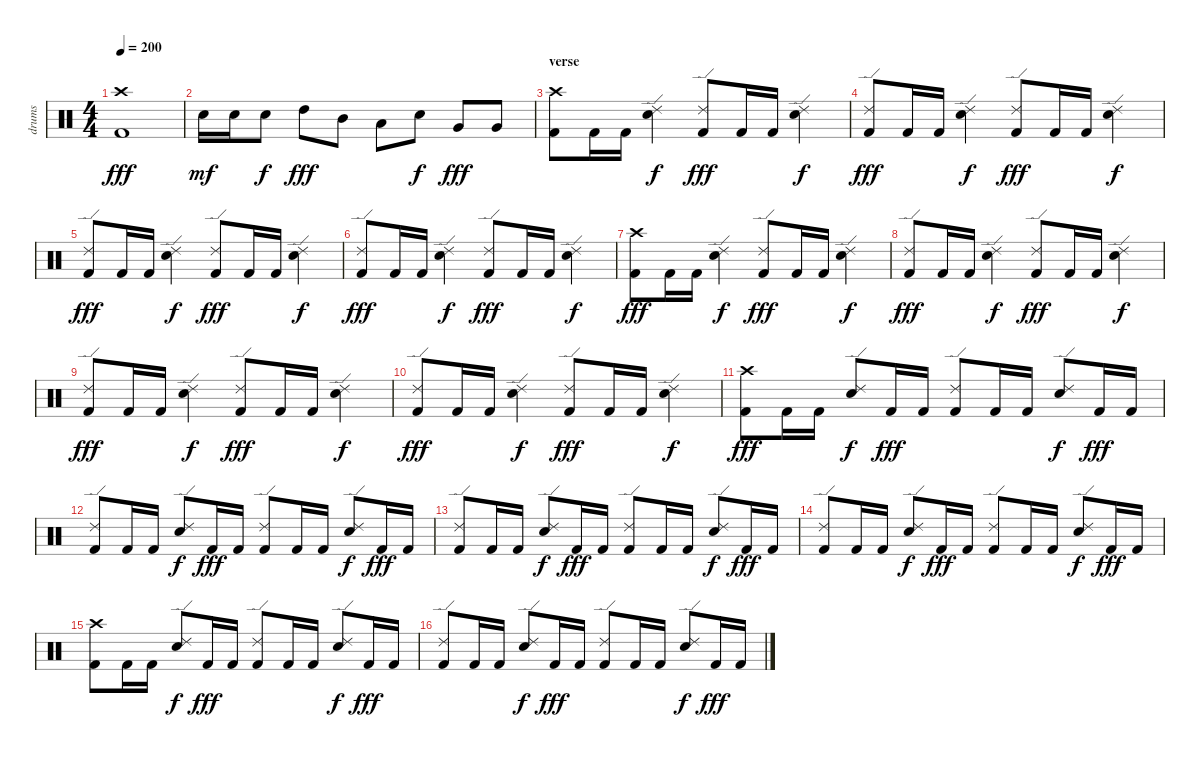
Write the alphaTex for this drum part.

\track ("drums" "drums") {instrument percussion}
\staff {score}
\articulation defaults
\ts (4 4)
\tempo 200
\clef neutral
\ks c
("Crash high (hit)" "Kick (hit) 2").1{dy fff} |
"Snare (hit) 2".16{dy mf} "Snare (hit) 2".16 "Snare (hit) 2".8{dy f} "High Tom (hit)".8{dy fff} "Mid Tom (hit)".8 "Low Tom (hit)".8 "Snare (hit) 2".8{dy f} "Very Low Tom (hit)".8{dy fff} "Very Low Tom (hit)".8 |
\section ("" "verse")
("Crash high (hit)" "Kick (hit) 2").8 "Kick (hit) 2".16 "Kick (hit) 2".16 ("Ride (edge) 2" "Snare (hit) 2").4{dy f} ("Ride (edge) 2" "Kick (hit) 2").8{dy fff} "Kick (hit) 2".16 "Kick (hit) 2".16 ("Ride (edge) 2" "Snare (hit) 2").4{dy f} |
("Ride (edge) 2" "Kick (hit) 2").8{dy fff} "Kick (hit) 2".16 "Kick (hit) 2".16 ("Ride (edge) 2" "Snare (hit) 2").4{dy f} ("Ride (edge) 2" "Kick (hit) 2").8{dy fff} "Kick (hit) 2".16 "Kick (hit) 2".16 ("Ride (edge) 2" "Snare (hit) 2").4{dy f} |
("Ride (edge) 2" "Kick (hit) 2").8{dy fff} "Kick (hit) 2".16 "Kick (hit) 2".16 ("Ride (edge) 2" "Snare (hit) 2").4{dy f} ("Ride (edge) 2" "Kick (hit) 2").8{dy fff} "Kick (hit) 2".16 "Kick (hit) 2".16 ("Ride (edge) 2" "Snare (hit) 2").4{dy f} |
("Ride (edge) 2" "Kick (hit) 2").8{dy fff} "Kick (hit) 2".16 "Kick (hit) 2".16 ("Ride (edge) 2" "Snare (hit) 2").4{dy f} ("Ride (edge) 2" "Kick (hit) 2").8{dy fff} "Kick (hit) 2".16 "Kick (hit) 2".16 ("Ride (edge) 2" "Snare (hit) 2").4{dy f} |
("Crash high (hit)" "Kick (hit) 2").8{dy fff} "Kick (hit) 2".16 "Kick (hit) 2".16 ("Ride (edge) 2" "Snare (hit) 2").4{dy f} ("Ride (edge) 2" "Kick (hit) 2").8{dy fff} "Kick (hit) 2".16 "Kick (hit) 2".16 ("Ride (edge) 2" "Snare (hit) 2").4{dy f} |
("Ride (edge) 2" "Kick (hit) 2").8{dy fff} "Kick (hit) 2".16 "Kick (hit) 2".16 ("Ride (edge) 2" "Snare (hit) 2").4{dy f} ("Ride (edge) 2" "Kick (hit) 2").8{dy fff} "Kick (hit) 2".16 "Kick (hit) 2".16 ("Ride (edge) 2" "Snare (hit) 2").4{dy f} |
("Ride (edge) 2" "Kick (hit) 2").8{dy fff} "Kick (hit) 2".16 "Kick (hit) 2".16 ("Ride (edge) 2" "Snare (hit) 2").4{dy f} ("Ride (edge) 2" "Kick (hit) 2").8{dy fff} "Kick (hit) 2".16 "Kick (hit) 2".16 ("Ride (edge) 2" "Snare (hit) 2").4{dy f} |
("Ride (edge) 2" "Kick (hit) 2").8{dy fff} "Kick (hit) 2".16 "Kick (hit) 2".16 ("Ride (edge) 2" "Snare (hit) 2").4{dy f} ("Ride (edge) 2" "Kick (hit) 2").8{dy fff} "Kick (hit) 2".16 "Kick (hit) 2".16 ("Ride (edge) 2" "Snare (hit) 2").4{dy f} |
("Crash high (hit)" "Kick (hit) 2").8{dy fff} "Kick (hit) 2".16 "Kick (hit) 2".16 ("Ride (edge) 2" "Snare (hit) 2").8{dy f} "Kick (hit) 2".16{dy fff} "Kick (hit) 2".16 ("Ride (edge) 2" "Kick (hit) 2").8 "Kick (hit) 2".16 "Kick (hit) 2".16 ("Ride (edge) 2" "Snare (hit) 2").8{dy f} "Kick (hit) 2".16{dy fff} "Kick (hit) 2".16 |
("Ride (edge) 2" "Kick (hit) 2").8 "Kick (hit) 2".16 "Kick (hit) 2".16 ("Ride (edge) 2" "Snare (hit) 2").8{dy f} "Kick (hit) 2".16{dy fff} "Kick (hit) 2".16 ("Ride (edge) 2" "Kick (hit) 2").8 "Kick (hit) 2".16 "Kick (hit) 2".16 ("Ride (edge) 2" "Snare (hit) 2").8{dy f} "Kick (hit) 2".16{dy fff} "Kick (hit) 2".16 |
("Ride (edge) 2" "Kick (hit) 2").8 "Kick (hit) 2".16 "Kick (hit) 2".16 ("Ride (edge) 2" "Snare (hit) 2").8{dy f} "Kick (hit) 2".16{dy fff} "Kick (hit) 2".16 ("Ride (edge) 2" "Kick (hit) 2").8 "Kick (hit) 2".16 "Kick (hit) 2".16 ("Ride (edge) 2" "Snare (hit) 2").8{dy f} "Kick (hit) 2".16{dy fff} "Kick (hit) 2".16 |
("Ride (edge) 2" "Kick (hit) 2").8 "Kick (hit) 2".16 "Kick (hit) 2".16 ("Ride (edge) 2" "Snare (hit) 2").8{dy f} "Kick (hit) 2".16{dy fff} "Kick (hit) 2".16 ("Ride (edge) 2" "Kick (hit) 2").8 "Kick (hit) 2".16 "Kick (hit) 2".16 ("Ride (edge) 2" "Snare (hit) 2").8{dy f} "Kick (hit) 2".16{dy fff} "Kick (hit) 2".16 |
("Crash high (hit)" "Kick (hit) 2").8 "Kick (hit) 2".16 "Kick (hit) 2".16 ("Ride (edge) 2" "Snare (hit) 2").8{dy f} "Kick (hit) 2".16{dy fff} "Kick (hit) 2".16 ("Ride (edge) 2" "Kick (hit) 2").8 "Kick (hit) 2".16 "Kick (hit) 2".16 ("Ride (edge) 2" "Snare (hit) 2").8{dy f} "Kick (hit) 2".16{dy fff} "Kick (hit) 2".16 |
("Ride (edge) 2" "Kick (hit) 2").8 "Kick (hit) 2".16 "Kick (hit) 2".16 ("Ride (edge) 2" "Snare (hit) 2").8{dy f} "Kick (hit) 2".16{dy fff} "Kick (hit) 2".16 ("Ride (edge) 2" "Kick (hit) 2").8 "Kick (hit) 2".16 "Kick (hit) 2".16 ("Ride (edge) 2" "Snare (hit) 2").8{dy f} "Kick (hit) 2".16{dy fff} "Kick (hit) 2".16
